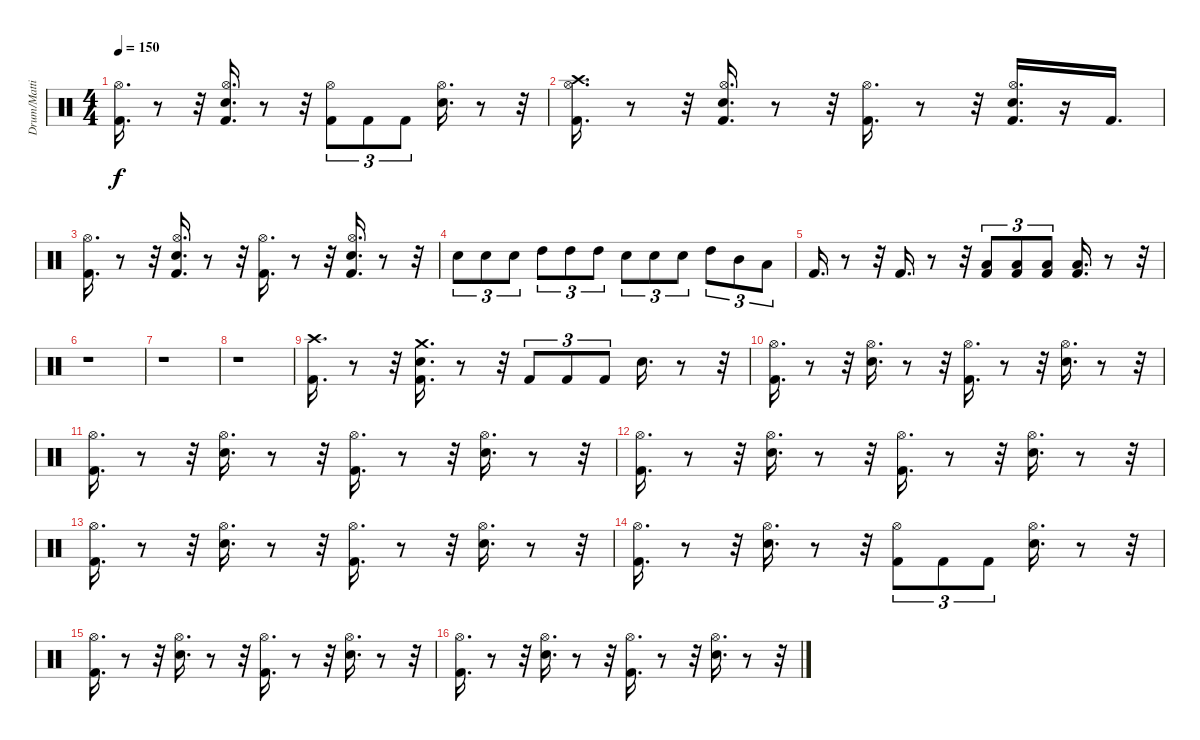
\track ("Drum/Matti" "Drum/Matti") {instrument percussion}
\staff {score}
\articulation defaults
\ts (4 4)
\tempo 150
\clef neutral
\ks c
("Kick (hit) 2" "Hi-Hat (open)").16{d dy f} r.8 r.32 ("Kick (hit) 2" "Hi-Hat (open)" "Electric Snare (hit)").16{d} r.8 r.32 ("Kick (hit) 2" "Hi-Hat (open)").8{tu (3 2)} "Kick (hit) 2".8{tu (3 2)} "Kick (hit) 2".8{tu (3 2)} ("Hi-Hat (open)" "Electric Snare (hit)").16{d} r.8 r.32 |
("Kick (hit) 2" "Hi-Hat (open)" "Crash high (hit)").16{d} r.8 r.32 ("Kick (hit) 2" "Hi-Hat (open)" "Electric Snare (hit)").16{d} r.8 r.32 ("Kick (hit) 2" "Hi-Hat (open)").16{d} r.8 r.32 ("Kick (hit) 2" "Hi-Hat (open)" "Electric Snare (hit)").16{d} r.16 "Kick (hit) 2".16{d} |
("Kick (hit) 2" "Hi-Hat (open)").16{d} r.8 r.32 ("Kick (hit) 2" "Hi-Hat (open)" "Electric Snare (hit)").16{d} r.8 r.32 ("Kick (hit) 2" "Hi-Hat (open)").16{d} r.8 r.32 ("Kick (hit) 2" "Hi-Hat (open)" "Electric Snare (hit)").16{d} r.8 r.32 |
"Electric Snare (hit)".8{tu (3 2)} "Electric Snare (hit)".8{tu (3 2)} "Electric Snare (hit)".8{tu (3 2)} "High Tom (hit)".8{tu (3 2)} "High Tom (hit)".8{tu (3 2)} "High Tom (hit)".8{tu (3 2)} "Electric Snare (hit)".8{tu (3 2)} "Electric Snare (hit)".8{tu (3 2)} "Electric Snare (hit)".8{tu (3 2)} "High Tom (hit)".8{tu (3 2)} "Mid Tom (hit)".8{tu (3 2)} "Low Tom (hit)".8{tu (3 2)} |
"Kick (hit) 2".16{d} r.8 r.32 "Kick (hit) 2".16{d} r.8 r.32 ("Kick (hit) 2" "Low Tom (hit)").8{tu (3 2)} ("Kick (hit) 2" "Low Tom (hit)").8{tu (3 2)} ("Kick (hit) 2" "Low Tom (hit)").8{tu (3 2)} ("Kick (hit) 2" "Low Tom (hit)").16{d} r.8 r.32 |
r.1 |
r.1 |
r.1 |
("Kick (hit) 2" "Crash high (hit)").16{d} r.8 r.32 ("Kick (hit) 2" "Electric Snare (hit)" "Crash medium (hit)").16{d} r.8 r.32 "Kick (hit) 2".8{tu (3 2)} "Kick (hit) 2".8{tu (3 2)} "Kick (hit) 2".8{tu (3 2)} "Electric Snare (hit)".16{d} r.8 r.32 |
("Kick (hit) 2" "Hi-Hat (open)").16{d} r.8 r.32 ("Electric Snare (hit)" "Hi-Hat (open)").16{d} r.8 r.32 ("Kick (hit) 2" "Hi-Hat (open)").16{d} r.8 r.32 ("Electric Snare (hit)" "Hi-Hat (open)").16{d} r.8 r.32 |
("Kick (hit) 2" "Hi-Hat (open)").16{d} r.8 r.32 ("Electric Snare (hit)" "Hi-Hat (open)").16{d} r.8 r.32 ("Kick (hit) 2" "Hi-Hat (open)").16{d} r.8 r.32 ("Electric Snare (hit)" "Hi-Hat (open)").16{d} r.8 r.32 |
("Kick (hit) 2" "Hi-Hat (open)").16{d} r.8 r.32 ("Electric Snare (hit)" "Hi-Hat (open)").16{d} r.8 r.32 ("Kick (hit) 2" "Hi-Hat (open)").16{d} r.8 r.32 ("Electric Snare (hit)" "Hi-Hat (open)").16{d} r.8 r.32 |
("Kick (hit) 2" "Hi-Hat (open)").16{d} r.8 r.32 ("Electric Snare (hit)" "Hi-Hat (open)").16{d} r.8 r.32 ("Kick (hit) 2" "Hi-Hat (open)").16{d} r.8 r.32 ("Electric Snare (hit)" "Hi-Hat (open)").16{d} r.8 r.32 |
("Kick (hit) 2" "Hi-Hat (open)").16{d} r.8 r.32 ("Electric Snare (hit)" "Hi-Hat (open)").16{d} r.8 r.32 ("Kick (hit) 2" "Hi-Hat (open)").8{tu (3 2)} "Kick (hit) 2".8{tu (3 2)} "Kick (hit) 2".8{tu (3 2)} ("Electric Snare (hit)" "Hi-Hat (open)").16{d} r.8 r.32 |
("Kick (hit) 2" "Hi-Hat (open)").16{d} r.8 r.32 ("Electric Snare (hit)" "Hi-Hat (open)").16{d} r.8 r.32 ("Kick (hit) 2" "Hi-Hat (open)").16{d} r.8 r.32 ("Electric Snare (hit)" "Hi-Hat (open)").16{d} r.8 r.32 |
("Kick (hit) 2" "Hi-Hat (open)").16{d} r.8 r.32 ("Electric Snare (hit)" "Hi-Hat (open)").16{d} r.8 r.32 ("Kick (hit) 2" "Hi-Hat (open)").16{d} r.8 r.32 ("Electric Snare (hit)" "Hi-Hat (open)").16{d} r.8 r.32
